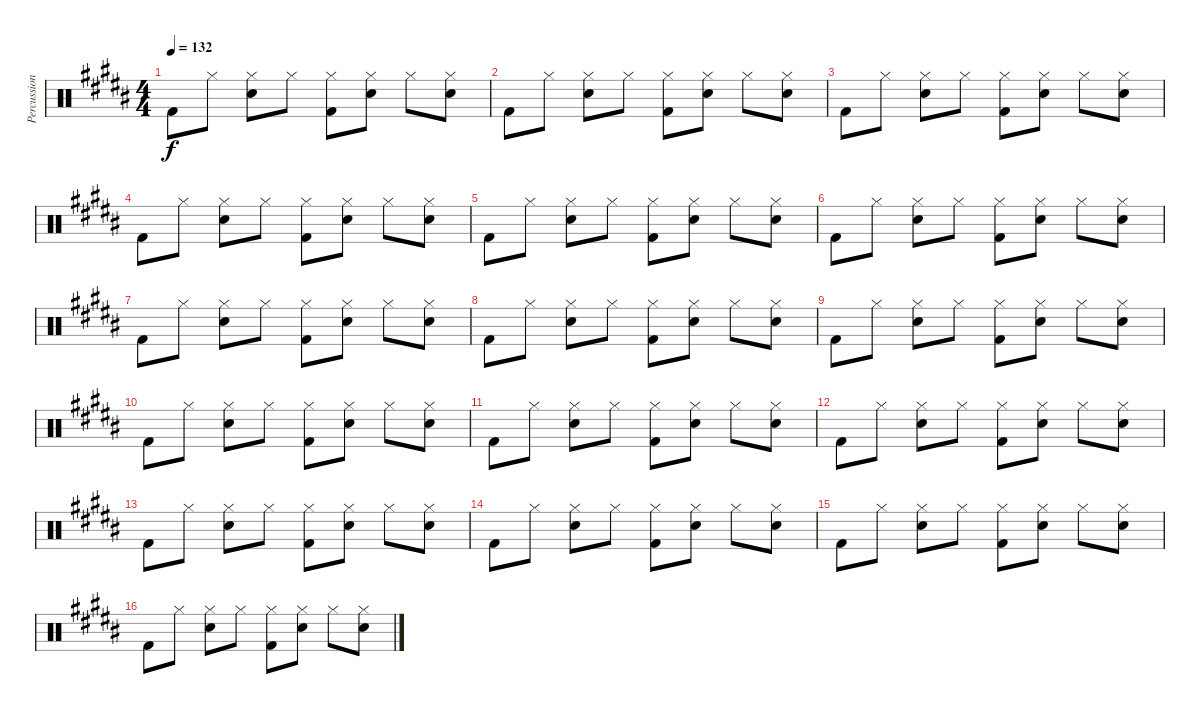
\track ("Percussions (Will Champion)" "Percussion") {instrument percussion}
\staff {score}
\articulation defaults
\ts (4 4)
\tempo 132
\clef neutral
\ks b "Kick (hit) 2".8{dy f} "Hi-Hat (closed)".8
("Hi-Hat (closed)" "Snare (hit) 2").8 "Hi-Hat (closed)".8 ("Hi-Hat (closed)" "Kick (hit) 2").8 ("Hi-Hat (closed)" "Snare (hit) 2").8 "Hi-Hat (closed)".8 ("Hi-Hat (closed)" "Snare (hit) 2").8 |
"Kick (hit) 2".8 "Hi-Hat (closed)".8 ("Hi-Hat (closed)" "Snare (hit) 2").8 "Hi-Hat (closed)".8 ("Hi-Hat (closed)" "Kick (hit) 2").8 ("Hi-Hat (closed)" "Snare (hit) 2").8 "Hi-Hat (closed)".8 ("Hi-Hat (closed)" "Snare (hit) 2").8 |
"Kick (hit) 2".8 "Hi-Hat (closed)".8 ("Hi-Hat (closed)" "Snare (hit) 2").8 "Hi-Hat (closed)".8 ("Hi-Hat (closed)" "Kick (hit) 2").8 ("Hi-Hat (closed)" "Snare (hit) 2").8 "Hi-Hat (closed)".8 ("Hi-Hat (closed)" "Snare (hit) 2").8 |
"Kick (hit) 2".8 "Hi-Hat (closed)".8 ("Hi-Hat (closed)" "Snare (hit) 2").8 "Hi-Hat (closed)".8 ("Hi-Hat (closed)" "Kick (hit) 2").8 ("Hi-Hat (closed)" "Snare (hit) 2").8 "Hi-Hat (closed)".8 ("Hi-Hat (closed)" "Snare (hit) 2").8 |
"Kick (hit) 2".8 "Hi-Hat (closed)".8 ("Hi-Hat (closed)" "Snare (hit) 2").8 "Hi-Hat (closed)".8 ("Hi-Hat (closed)" "Kick (hit) 2").8 ("Hi-Hat (closed)" "Snare (hit) 2").8 "Hi-Hat (closed)".8 ("Hi-Hat (closed)" "Snare (hit) 2").8 |
"Kick (hit) 2".8 "Hi-Hat (closed)".8 ("Hi-Hat (closed)" "Snare (hit) 2").8 "Hi-Hat (closed)".8 ("Hi-Hat (closed)" "Kick (hit) 2").8 ("Hi-Hat (closed)" "Snare (hit) 2").8 "Hi-Hat (closed)".8 ("Hi-Hat (closed)" "Snare (hit) 2").8 |
"Kick (hit) 2".8 "Hi-Hat (closed)".8 ("Hi-Hat (closed)" "Snare (hit) 2").8 "Hi-Hat (closed)".8 ("Hi-Hat (closed)" "Kick (hit) 2").8 ("Hi-Hat (closed)" "Snare (hit) 2").8 "Hi-Hat (closed)".8 ("Hi-Hat (closed)" "Snare (hit) 2").8 |
"Kick (hit) 2".8 "Hi-Hat (closed)".8 ("Hi-Hat (closed)" "Snare (hit) 2").8 "Hi-Hat (closed)".8 ("Hi-Hat (closed)" "Kick (hit) 2").8 ("Hi-Hat (closed)" "Snare (hit) 2").8 "Hi-Hat (closed)".8 ("Hi-Hat (closed)" "Snare (hit) 2").8 |
"Kick (hit) 2".8 "Hi-Hat (closed)".8 ("Hi-Hat (closed)" "Snare (hit) 2").8 "Hi-Hat (closed)".8 ("Hi-Hat (closed)" "Kick (hit) 2").8 ("Hi-Hat (closed)" "Snare (hit) 2").8 "Hi-Hat (closed)".8 ("Hi-Hat (closed)" "Snare (hit) 2").8 |
"Kick (hit) 2".8 "Hi-Hat (closed)".8 ("Hi-Hat (closed)" "Snare (hit) 2").8 "Hi-Hat (closed)".8 ("Hi-Hat (closed)" "Kick (hit) 2").8 ("Hi-Hat (closed)" "Snare (hit) 2").8 "Hi-Hat (closed)".8 ("Hi-Hat (closed)" "Snare (hit) 2").8 |
"Kick (hit) 2".8 "Hi-Hat (closed)".8 ("Hi-Hat (closed)" "Snare (hit) 2").8 "Hi-Hat (closed)".8 ("Hi-Hat (closed)" "Kick (hit) 2").8 ("Hi-Hat (closed)" "Snare (hit) 2").8 "Hi-Hat (closed)".8 ("Hi-Hat (closed)" "Snare (hit) 2").8 |
"Kick (hit) 2".8 "Hi-Hat (closed)".8 ("Hi-Hat (closed)" "Snare (hit) 2").8 "Hi-Hat (closed)".8 ("Hi-Hat (closed)" "Kick (hit) 2").8 ("Hi-Hat (closed)" "Snare (hit) 2").8 "Hi-Hat (closed)".8 ("Hi-Hat (closed)" "Snare (hit) 2").8 |
"Kick (hit) 2".8 "Hi-Hat (closed)".8 ("Hi-Hat (closed)" "Snare (hit) 2").8 "Hi-Hat (closed)".8 ("Hi-Hat (closed)" "Kick (hit) 2").8 ("Hi-Hat (closed)" "Snare (hit) 2").8 "Hi-Hat (closed)".8 ("Hi-Hat (closed)" "Snare (hit) 2").8 |
"Kick (hit) 2".8 "Hi-Hat (closed)".8 ("Hi-Hat (closed)" "Snare (hit) 2").8 "Hi-Hat (closed)".8 ("Hi-Hat (closed)" "Kick (hit) 2").8 ("Hi-Hat (closed)" "Snare (hit) 2").8 "Hi-Hat (closed)".8 ("Hi-Hat (closed)" "Snare (hit) 2").8 |
"Kick (hit) 2".8 "Hi-Hat (closed)".8 ("Hi-Hat (closed)" "Snare (hit) 2").8 "Hi-Hat (closed)".8 ("Hi-Hat (closed)" "Kick (hit) 2").8 ("Hi-Hat (closed)" "Snare (hit) 2").8 "Hi-Hat (closed)".8 ("Hi-Hat (closed)" "Snare (hit) 2").8 |
"Kick (hit) 2".8 "Hi-Hat (closed)".8 ("Hi-Hat (closed)" "Snare (hit) 2").8 "Hi-Hat (closed)".8 ("Hi-Hat (closed)" "Kick (hit) 2").8 ("Hi-Hat (closed)" "Snare (hit) 2").8 "Hi-Hat (closed)".8 ("Hi-Hat (closed)" "Snare (hit) 2").8
